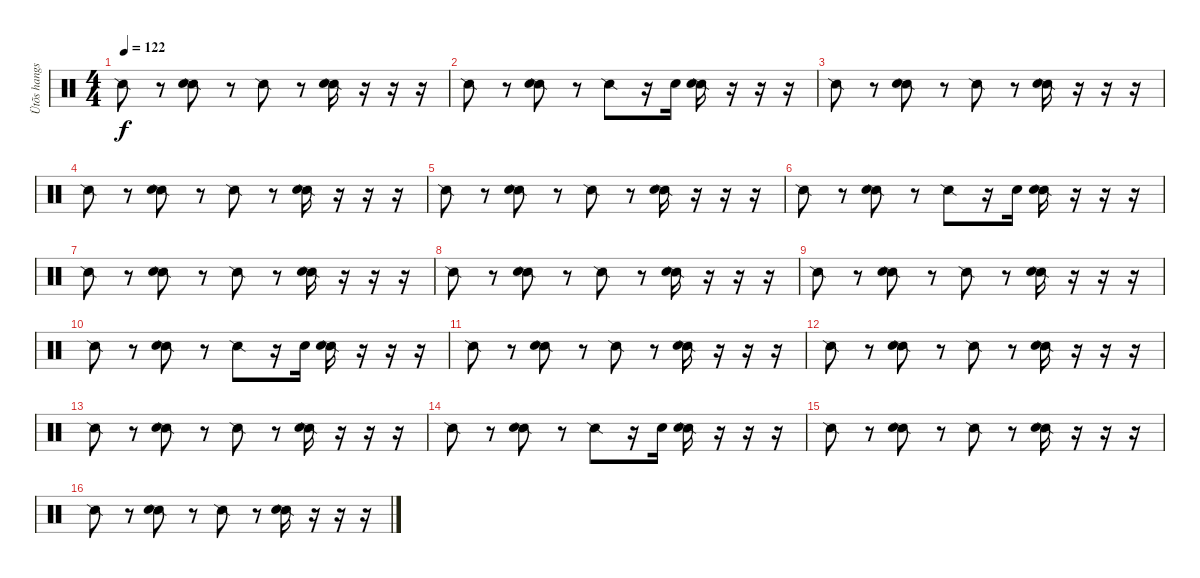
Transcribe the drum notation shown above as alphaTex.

\track ("Ütõs hangszer" "Ütõs hangs") {instrument percussion}
\staff {score}
\articulation defaults
\ts (4 4)
\tempo 122
\clef neutral
\ks c "Snare (side stick) 2".8{dy f}
r.8 ("Snare (side stick) 2" "Hand Clap (hit)").8 r.8 "Snare (side stick) 2".8 r.8 ("Snare (side stick) 2" "Hand Clap (hit)").16 r.16 r.16 r.16 |
"Snare (side stick) 2".8 r.8 ("Snare (side stick) 2" "Hand Clap (hit)").8 r.8 "Snare (side stick) 2".8 r.16 "Hand Clap (hit)".16 ("Snare (side stick) 2" "Hand Clap (hit)").16 r.16 r.16 r.16 |
"Snare (side stick) 2".8 r.8 ("Snare (side stick) 2" "Hand Clap (hit)").8 r.8 "Snare (side stick) 2".8 r.8 ("Snare (side stick) 2" "Hand Clap (hit)").16 r.16 r.16 r.16 |
"Snare (side stick) 2".8 r.8 ("Snare (side stick) 2" "Hand Clap (hit)").8 r.8 "Snare (side stick) 2".8 r.8 ("Snare (side stick) 2" "Hand Clap (hit)").16 r.16 r.16 r.16 |
"Snare (side stick) 2".8 r.8 ("Snare (side stick) 2" "Hand Clap (hit)").8 r.8 "Snare (side stick) 2".8 r.8 ("Snare (side stick) 2" "Hand Clap (hit)").16 r.16 r.16 r.16 |
"Snare (side stick) 2".8 r.8 ("Snare (side stick) 2" "Hand Clap (hit)").8 r.8 "Snare (side stick) 2".8 r.16 "Hand Clap (hit)".16 ("Snare (side stick) 2" "Hand Clap (hit)").16 r.16 r.16 r.16 |
"Snare (side stick) 2".8 r.8 ("Snare (side stick) 2" "Hand Clap (hit)").8 r.8 "Snare (side stick) 2".8 r.8 ("Snare (side stick) 2" "Hand Clap (hit)").16 r.16 r.16 r.16 |
"Snare (side stick) 2".8 r.8 ("Snare (side stick) 2" "Hand Clap (hit)").8 r.8 "Snare (side stick) 2".8 r.8 ("Snare (side stick) 2" "Hand Clap (hit)").16 r.16 r.16 r.16 |
"Snare (side stick) 2".8 r.8 ("Snare (side stick) 2" "Hand Clap (hit)").8 r.8 "Snare (side stick) 2".8 r.8 ("Snare (side stick) 2" "Hand Clap (hit)").16 r.16 r.16 r.16 |
"Snare (side stick) 2".8 r.8 ("Snare (side stick) 2" "Hand Clap (hit)").8 r.8 "Snare (side stick) 2".8 r.16 "Hand Clap (hit)".16 ("Snare (side stick) 2" "Hand Clap (hit)").16 r.16 r.16 r.16 |
"Snare (side stick) 2".8 r.8 ("Snare (side stick) 2" "Hand Clap (hit)").8 r.8 "Snare (side stick) 2".8 r.8 ("Snare (side stick) 2" "Hand Clap (hit)").16 r.16 r.16 r.16 |
"Snare (side stick) 2".8 r.8 ("Snare (side stick) 2" "Hand Clap (hit)").8 r.8 "Snare (side stick) 2".8 r.8 ("Snare (side stick) 2" "Hand Clap (hit)").16 r.16 r.16 r.16 |
"Snare (side stick) 2".8 r.8 ("Snare (side stick) 2" "Hand Clap (hit)").8 r.8 "Snare (side stick) 2".8 r.8 ("Snare (side stick) 2" "Hand Clap (hit)").16 r.16 r.16 r.16 |
"Snare (side stick) 2".8 r.8 ("Snare (side stick) 2" "Hand Clap (hit)").8 r.8 "Snare (side stick) 2".8 r.16 "Hand Clap (hit)".16 ("Snare (side stick) 2" "Hand Clap (hit)").16 r.16 r.16 r.16 |
"Snare (side stick) 2".8 r.8 ("Snare (side stick) 2" "Hand Clap (hit)").8 r.8 "Snare (side stick) 2".8 r.8 ("Snare (side stick) 2" "Hand Clap (hit)").16 r.16 r.16 r.16 |
"Snare (side stick) 2".8 r.8 ("Snare (side stick) 2" "Hand Clap (hit)").8 r.8 "Snare (side stick) 2".8 r.8 ("Snare (side stick) 2" "Hand Clap (hit)").16 r.16 r.16 r.16
